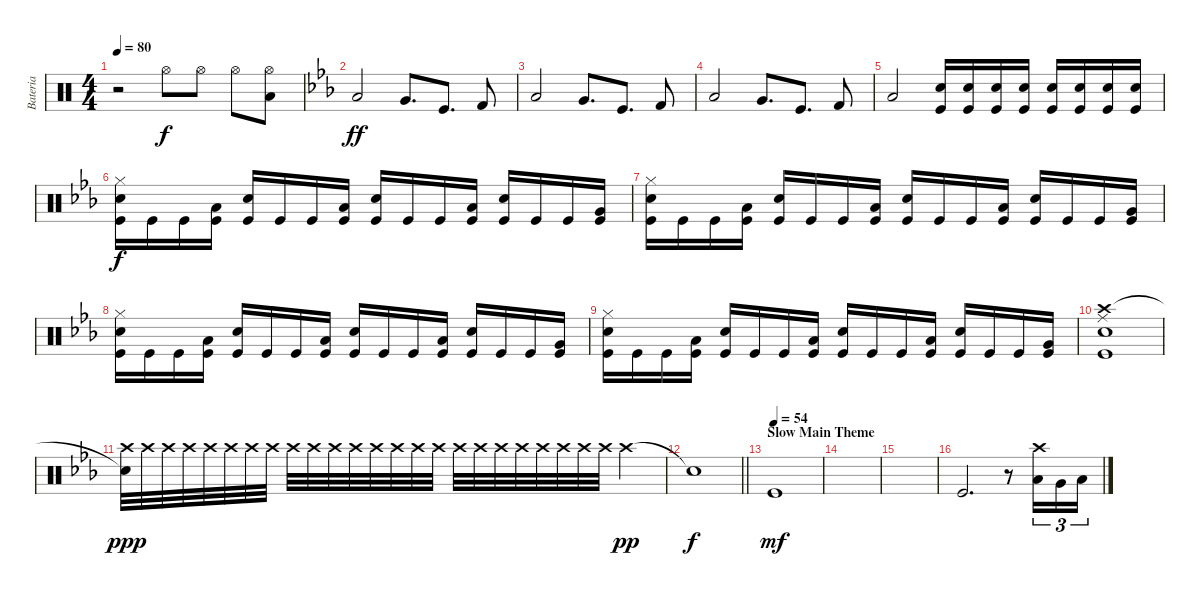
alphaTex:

\track ("Bateria" "Bateria") {instrument percussion}
\staff {score}
\articulation defaults
\ts (4 4)
\tempo 80
\clef neutral
\ks c
r.2{dy f} "Hi-Hat (open)".8 "Hi-Hat (open)".8 "Hi-Hat (open)".8 ("Hi-Hat (open)" "Low Tom (hit)").8 |
\ks eb "Low Tom (hit)".2{dy ff} "Very Low Tom (hit)".8{d} "Kick (hit)".8{d} "Kick (hit) 2".8
|
"Low Tom (hit)".2 "Very Low Tom (hit)".8{d} "Kick (hit)".8{d} "Kick (hit) 2".8 |
"Low Tom (hit)".2 "Very Low Tom (hit)".8{d} "Kick (hit)".8{d} "Kick (hit) 2".8 |
"Low Tom (hit)".2 ("Snare (hit) 2" "Kick (hit)").16 ("Snare (hit) 2" "Kick (hit)").16 ("Snare (hit) 2" "Kick (hit)").16 ("Snare (hit) 2" "Kick (hit)").16 ("Snare (hit) 2" "Kick (hit)").16 ("Snare (hit) 2" "Kick (hit)").16 ("Snare (hit) 2" "Kick (hit)").16 ("Snare (hit) 2" "Kick (hit)").16 |
("Hi-Hat (closed)" "Snare (hit) 2" "Kick (hit)").16{dy f} "Kick (hit)".16 "Kick (hit)".16 ("Low Tom (hit)" "Kick (hit)").16 ("Snare (hit) 2" "Kick (hit)").16 "Kick (hit)".16 "Kick (hit)".16 ("Low Tom (hit)" "Kick (hit)").16 ("Snare (hit) 2" "Kick (hit)").16 "Kick (hit)".16 "Kick (hit)".16 ("Low Tom (hit)" "Kick (hit)").16 ("Snare (hit) 2" "Kick (hit)").16 "Kick (hit)".16 "Kick (hit)".16 ("Very Low Tom (hit)" "Kick (hit)").16 |
("Hi-Hat (closed)" "Snare (hit) 2" "Kick (hit)").16 "Kick (hit)".16 "Kick (hit)".16 ("Low Tom (hit)" "Kick (hit)").16 ("Snare (hit) 2" "Kick (hit)").16 "Kick (hit)".16 "Kick (hit)".16 ("Low Tom (hit)" "Kick (hit)").16 ("Snare (hit) 2" "Kick (hit)").16 "Kick (hit)".16 "Kick (hit)".16 ("Low Tom (hit)" "Kick (hit)").16 ("Snare (hit) 2" "Kick (hit)").16 "Kick (hit)".16 "Kick (hit)".16 ("Very Low Tom (hit)" "Kick (hit)").16 |
("Hi-Hat (closed)" "Snare (hit) 2" "Kick (hit)").16 "Kick (hit)".16 "Kick (hit)".16 ("Low Tom (hit)" "Kick (hit)").16 ("Snare (hit) 2" "Kick (hit)").16 "Kick (hit)".16 "Kick (hit)".16 ("Low Tom (hit)" "Kick (hit)").16 ("Snare (hit) 2" "Kick (hit)").16 "Kick (hit)".16 "Kick (hit)".16 ("Low Tom (hit)" "Kick (hit)").16 ("Snare (hit) 2" "Kick (hit)").16 "Kick (hit)".16 "Kick (hit)".16 ("Very Low Tom (hit)" "Kick (hit)").16 |
("Hi-Hat (closed)" "Snare (hit) 2" "Kick (hit)").16 "Kick (hit)".16 "Kick (hit)".16 ("Low Tom (hit)" "Kick (hit)").16 ("Snare (hit) 2" "Kick (hit)").16 "Kick (hit)".16 "Kick (hit)".16 ("Low Tom (hit)" "Kick (hit)").16 ("Snare (hit) 2" "Kick (hit)").16 "Kick (hit)".16 "Kick (hit)".16 ("Low Tom (hit)" "Kick (hit)").16 ("Snare (hit) 2" "Kick (hit)").16 "Kick (hit)".16 "Kick (hit)".16 ("Very Low Tom (hit)" "Kick (hit)").16 |
("Ride (middle)" "Crash high (hit)" "Snare (hit) 2" "Kick (hit)").1 |
("Crash high (hit)" "Snare (hit)"{t}).32{dy ppp} "Crash high (hit)".32 "Crash high (hit)".32 "Crash high (hit)".32 "Crash high (hit)".32 "Crash high (hit)".32 "Crash high (hit)".32 "Crash high (hit)".32 "Crash high (hit)".32 "Crash high (hit)".32 "Crash high (hit)".32 "Crash high (hit)".32 "Crash high (hit)".32 "Crash high (hit)".32 "Crash high (hit)".32 "Crash high (hit)".32 "Crash high (hit)".32 "Crash high (hit)".32 "Crash high (hit)".32 "Crash high (hit)".32 "Crash high (hit)".32 "Crash high (hit)".32 "Crash high (hit)".32 "Crash high (hit)".32 "Crash high (hit)".4{dy pp} |
\barLineRight lightlight "Snare (hit)"{t}.1{dy f}
|
\section ("" "Slow Main Theme")
\tempo (54)
"Kick (hit)".1{dy mf} |
|
|
"Kick (hit)".2{d} r.8 ("Crash high (hit)" "Low Tom (hit)").16{tu (3 2)} "Very Low Tom (hit)".16{tu (3 2)} "Low Floor Tom (hit)".16{tu (3 2)}
